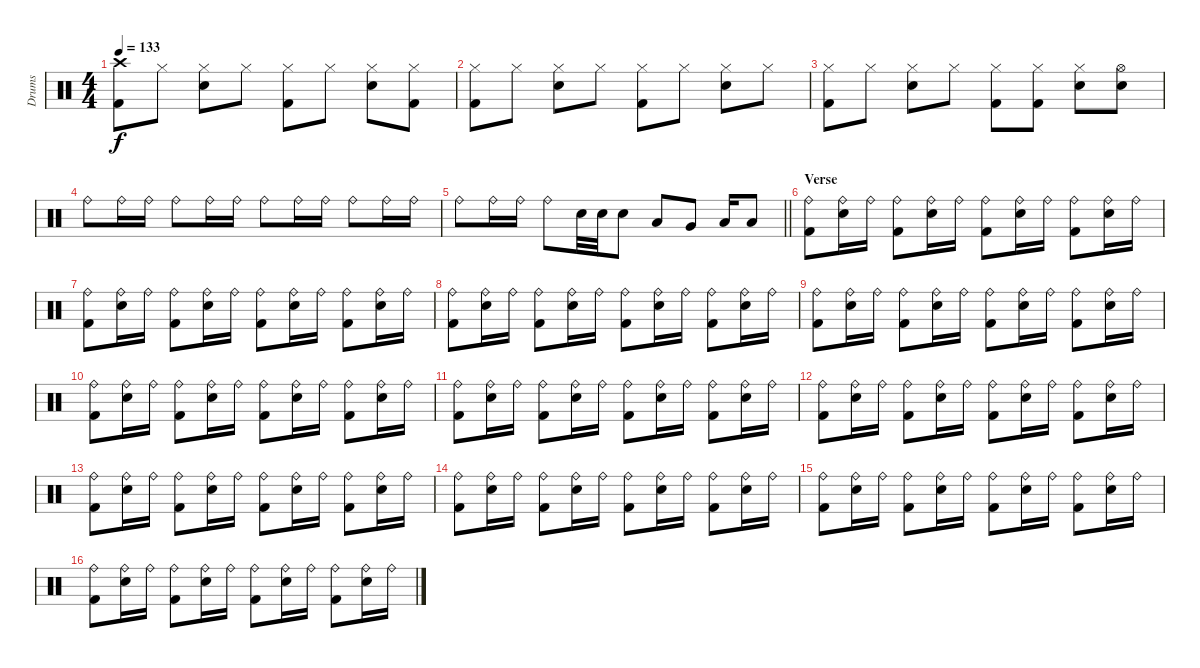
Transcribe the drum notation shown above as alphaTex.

\track ("Drums" "Drums") {instrument percussion}
\staff {score}
\articulation defaults
\ts (4 4)
\tempo 133
\clef neutral
\ks c
("Kick (hit) 2" "Crash high (hit)").8{dy f} "Hi-Hat (closed)".8 ("Electric Snare (hit)" "Hi-Hat (closed)").8 "Hi-Hat (closed)".8 ("Kick (hit) 2" "Hi-Hat (closed)").8 "Hi-Hat (closed)".8 ("Electric Snare (hit)" "Hi-Hat (closed)").8 ("Kick (hit) 2" "Hi-Hat (closed)").8 |
("Kick (hit) 2" "Hi-Hat (closed)").8 "Hi-Hat (closed)".8 ("Electric Snare (hit)" "Hi-Hat (closed)").8 "Hi-Hat (closed)".8 ("Kick (hit) 2" "Hi-Hat (closed)").8 "Hi-Hat (closed)".8 ("Electric Snare (hit)" "Hi-Hat (closed)").8 "Hi-Hat (closed)".8 |
("Kick (hit) 2" "Hi-Hat (closed)").8 "Hi-Hat (closed)".8 ("Electric Snare (hit)" "Hi-Hat (closed)").8 "Hi-Hat (closed)".8 ("Kick (hit) 2" "Hi-Hat (closed)").8 ("Kick (hit) 2" "Hi-Hat (closed)").8 ("Electric Snare (hit)" "Hi-Hat (closed)").8 ("Electric Snare (hit)" "Hi-Hat (open)").8 |
"Ride (bell)".8 "Ride (bell)".16 "Ride (bell)".16 "Ride (bell)".8 "Ride (bell)".16 "Ride (bell)".16 "Ride (bell)".8 "Ride (bell)".16 "Ride (bell)".16 "Ride (bell)".8 "Ride (bell)".16 "Ride (bell)".16 |
\barLineRight lightlight "Ride (bell)".8 "Ride (bell)".16 "Ride (bell)".16 "Ride (bell)".8 "Electric Snare (hit)".32 "Electric Snare (hit)".32 "Electric Snare (hit)".8 "Low Tom (hit)".8 "Very Low Tom (hit)".8 "Low Floor Tom (hit)".16 "Low Floor Tom (hit)".8
|
\section ("" "Verse")
("Ride (bell)" "Kick (hit) 2").8 ("Ride (bell)" "Electric Snare (hit)").16 "Ride (bell)".16 ("Ride (bell)" "Kick (hit) 2").8 ("Ride (bell)" "Electric Snare (hit)").16 "Ride (bell)".16 ("Ride (bell)" "Kick (hit) 2").8 ("Ride (bell)" "Electric Snare (hit)").16 "Ride (bell)".16 ("Ride (bell)" "Kick (hit) 2").8 ("Ride (bell)" "Electric Snare (hit)").16 "Ride (bell)".16 |
("Ride (bell)" "Kick (hit) 2").8 ("Ride (bell)" "Electric Snare (hit)").16 "Ride (bell)".16 ("Ride (bell)" "Kick (hit) 2").8 ("Ride (bell)" "Electric Snare (hit)").16 "Ride (bell)".16 ("Ride (bell)" "Kick (hit) 2").8 ("Ride (bell)" "Electric Snare (hit)").16 "Ride (bell)".16 ("Ride (bell)" "Kick (hit) 2").8 ("Ride (bell)" "Electric Snare (hit)").16 "Ride (bell)".16 |
("Ride (bell)" "Kick (hit) 2").8 ("Ride (bell)" "Electric Snare (hit)").16 "Ride (bell)".16 ("Ride (bell)" "Kick (hit) 2").8 ("Ride (bell)" "Electric Snare (hit)").16 "Ride (bell)".16 ("Ride (bell)" "Kick (hit) 2").8 ("Ride (bell)" "Electric Snare (hit)").16 "Ride (bell)".16 ("Ride (bell)" "Kick (hit) 2").8 ("Ride (bell)" "Electric Snare (hit)").16 "Ride (bell)".16 |
("Ride (bell)" "Kick (hit) 2").8 ("Ride (bell)" "Electric Snare (hit)").16 "Ride (bell)".16 ("Ride (bell)" "Kick (hit) 2").8 ("Ride (bell)" "Electric Snare (hit)").16 "Ride (bell)".16 ("Ride (bell)" "Kick (hit) 2").8 ("Ride (bell)" "Electric Snare (hit)").16 "Ride (bell)".16 ("Ride (bell)" "Kick (hit) 2").8 ("Ride (bell)" "Electric Snare (hit)").16 "Ride (bell)".16 |
("Ride (bell)" "Kick (hit) 2").8 ("Ride (bell)" "Electric Snare (hit)").16 "Ride (bell)".16 ("Ride (bell)" "Kick (hit) 2").8 ("Ride (bell)" "Electric Snare (hit)").16 "Ride (bell)".16 ("Ride (bell)" "Kick (hit) 2").8 ("Ride (bell)" "Electric Snare (hit)").16 "Ride (bell)".16 ("Ride (bell)" "Kick (hit) 2").8 ("Ride (bell)" "Electric Snare (hit)").16 "Ride (bell)".16 |
("Ride (bell)" "Kick (hit) 2").8 ("Ride (bell)" "Electric Snare (hit)").16 "Ride (bell)".16 ("Ride (bell)" "Kick (hit) 2").8 ("Ride (bell)" "Electric Snare (hit)").16 "Ride (bell)".16 ("Ride (bell)" "Kick (hit) 2").8 ("Ride (bell)" "Electric Snare (hit)").16 "Ride (bell)".16 ("Ride (bell)" "Kick (hit) 2").8 ("Ride (bell)" "Electric Snare (hit)").16 "Ride (bell)".16 |
("Ride (bell)" "Kick (hit) 2").8 ("Ride (bell)" "Electric Snare (hit)").16 "Ride (bell)".16 ("Ride (bell)" "Kick (hit) 2").8 ("Ride (bell)" "Electric Snare (hit)").16 "Ride (bell)".16 ("Ride (bell)" "Kick (hit) 2").8 ("Ride (bell)" "Electric Snare (hit)").16 "Ride (bell)".16 ("Ride (bell)" "Kick (hit) 2").8 ("Ride (bell)" "Electric Snare (hit)").16 "Ride (bell)".16 |
("Ride (bell)" "Kick (hit) 2").8 ("Ride (bell)" "Electric Snare (hit)").16 "Ride (bell)".16 ("Ride (bell)" "Kick (hit) 2").8 ("Ride (bell)" "Electric Snare (hit)").16 "Ride (bell)".16 ("Ride (bell)" "Kick (hit) 2").8 ("Ride (bell)" "Electric Snare (hit)").16 "Ride (bell)".16 ("Ride (bell)" "Kick (hit) 2").8 ("Ride (bell)" "Electric Snare (hit)").16 "Ride (bell)".16 |
("Ride (bell)" "Kick (hit) 2").8 ("Ride (bell)" "Electric Snare (hit)").16 "Ride (bell)".16 ("Ride (bell)" "Kick (hit) 2").8 ("Ride (bell)" "Electric Snare (hit)").16 "Ride (bell)".16 ("Ride (bell)" "Kick (hit) 2").8 ("Ride (bell)" "Electric Snare (hit)").16 "Ride (bell)".16 ("Ride (bell)" "Kick (hit) 2").8 ("Ride (bell)" "Electric Snare (hit)").16 "Ride (bell)".16 |
("Ride (bell)" "Kick (hit) 2").8 ("Ride (bell)" "Electric Snare (hit)").16 "Ride (bell)".16 ("Ride (bell)" "Kick (hit) 2").8 ("Ride (bell)" "Electric Snare (hit)").16 "Ride (bell)".16 ("Ride (bell)" "Kick (hit) 2").8 ("Ride (bell)" "Electric Snare (hit)").16 "Ride (bell)".16 ("Ride (bell)" "Kick (hit) 2").8 ("Ride (bell)" "Electric Snare (hit)").16 "Ride (bell)".16 |
("Ride (bell)" "Kick (hit) 2").8 ("Ride (bell)" "Electric Snare (hit)").16 "Ride (bell)".16 ("Ride (bell)" "Kick (hit) 2").8 ("Ride (bell)" "Electric Snare (hit)").16 "Ride (bell)".16 ("Ride (bell)" "Kick (hit) 2").8 ("Ride (bell)" "Electric Snare (hit)").16 "Ride (bell)".16 ("Ride (bell)" "Kick (hit) 2").8 ("Ride (bell)" "Electric Snare (hit)").16 "Ride (bell)".16
